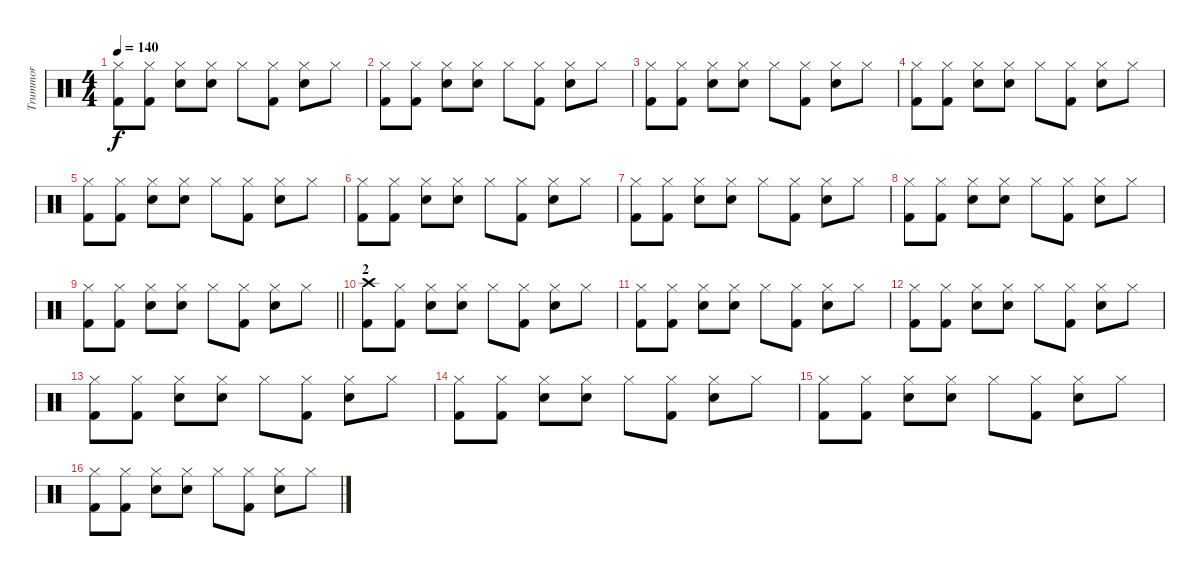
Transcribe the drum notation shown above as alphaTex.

\track ("Trummor" "Trummor") {instrument percussion}
\staff {score}
\articulation defaults
\ts (4 4)
\tempo 140
\clef neutral
\ks c
("Hi-Hat (closed)" "Kick (hit) 2").8{dy f} ("Hi-Hat (closed)" "Kick (hit) 2").8 ("Hi-Hat (closed)" "Electric Snare (hit)").8 ("Hi-Hat (closed)" "Electric Snare (hit)").8 "Hi-Hat (closed)".8 ("Hi-Hat (closed)" "Kick (hit) 2").8 ("Hi-Hat (closed)" "Electric Snare (hit)").8 "Hi-Hat (closed)".8 |
("Hi-Hat (closed)" "Kick (hit) 2").8 ("Hi-Hat (closed)" "Kick (hit) 2").8 ("Hi-Hat (closed)" "Electric Snare (hit)").8 ("Hi-Hat (closed)" "Electric Snare (hit)").8 "Hi-Hat (closed)".8 ("Hi-Hat (closed)" "Kick (hit) 2").8 ("Hi-Hat (closed)" "Electric Snare (hit)").8 "Hi-Hat (closed)".8 |
("Hi-Hat (closed)" "Kick (hit) 2").8 ("Hi-Hat (closed)" "Kick (hit) 2").8 ("Hi-Hat (closed)" "Electric Snare (hit)").8 ("Hi-Hat (closed)" "Electric Snare (hit)").8 "Hi-Hat (closed)".8 ("Hi-Hat (closed)" "Kick (hit) 2").8 ("Hi-Hat (closed)" "Electric Snare (hit)").8 "Hi-Hat (closed)".8 |
("Hi-Hat (closed)" "Kick (hit) 2").8 ("Hi-Hat (closed)" "Kick (hit) 2").8 ("Hi-Hat (closed)" "Electric Snare (hit)").8 ("Hi-Hat (closed)" "Electric Snare (hit)").8 "Hi-Hat (closed)".8 ("Hi-Hat (closed)" "Kick (hit) 2").8 ("Hi-Hat (closed)" "Electric Snare (hit)").8 "Hi-Hat (closed)".8 |
("Hi-Hat (closed)" "Kick (hit) 2").8 ("Hi-Hat (closed)" "Kick (hit) 2").8 ("Hi-Hat (closed)" "Electric Snare (hit)").8 ("Hi-Hat (closed)" "Electric Snare (hit)").8 "Hi-Hat (closed)".8 ("Hi-Hat (closed)" "Kick (hit) 2").8 ("Hi-Hat (closed)" "Electric Snare (hit)").8 "Hi-Hat (closed)".8 |
("Hi-Hat (closed)" "Kick (hit) 2").8 ("Hi-Hat (closed)" "Kick (hit) 2").8 ("Hi-Hat (closed)" "Electric Snare (hit)").8 ("Hi-Hat (closed)" "Electric Snare (hit)").8 "Hi-Hat (closed)".8 ("Hi-Hat (closed)" "Kick (hit) 2").8 ("Hi-Hat (closed)" "Electric Snare (hit)").8 "Hi-Hat (closed)".8 |
("Hi-Hat (closed)" "Kick (hit) 2").8 ("Hi-Hat (closed)" "Kick (hit) 2").8 ("Hi-Hat (closed)" "Electric Snare (hit)").8 ("Hi-Hat (closed)" "Electric Snare (hit)").8 "Hi-Hat (closed)".8 ("Hi-Hat (closed)" "Kick (hit) 2").8 ("Hi-Hat (closed)" "Electric Snare (hit)").8 "Hi-Hat (closed)".8 |
("Hi-Hat (closed)" "Kick (hit) 2").8 ("Hi-Hat (closed)" "Kick (hit) 2").8 ("Hi-Hat (closed)" "Electric Snare (hit)").8 ("Hi-Hat (closed)" "Electric Snare (hit)").8 "Hi-Hat (closed)".8 ("Hi-Hat (closed)" "Kick (hit) 2").8 ("Hi-Hat (closed)" "Electric Snare (hit)").8 "Hi-Hat (closed)".8 |
\barLineRight lightlight
("Hi-Hat (closed)" "Kick (hit) 2").8 ("Hi-Hat (closed)" "Kick (hit) 2").8 ("Hi-Hat (closed)" "Electric Snare (hit)").8 ("Hi-Hat (closed)" "Electric Snare (hit)").8 "Hi-Hat (closed)".8 ("Hi-Hat (closed)" "Kick (hit) 2").8 ("Hi-Hat (closed)" "Electric Snare (hit)").8 "Hi-Hat (closed)".8 |
\section ("" "2")
("Crash high (hit)" "Kick (hit) 2").8 ("Hi-Hat (closed)" "Kick (hit) 2").8 ("Hi-Hat (closed)" "Electric Snare (hit)").8 ("Hi-Hat (closed)" "Electric Snare (hit)").8 "Hi-Hat (closed)".8 ("Hi-Hat (closed)" "Kick (hit) 2").8 ("Hi-Hat (closed)" "Electric Snare (hit)").8 "Hi-Hat (closed)".8 |
("Hi-Hat (closed)" "Kick (hit) 2").8 ("Hi-Hat (closed)" "Kick (hit) 2").8 ("Hi-Hat (closed)" "Electric Snare (hit)").8 ("Hi-Hat (closed)" "Electric Snare (hit)").8 "Hi-Hat (closed)".8 ("Hi-Hat (closed)" "Kick (hit) 2").8 ("Hi-Hat (closed)" "Electric Snare (hit)").8 "Hi-Hat (closed)".8 |
("Hi-Hat (closed)" "Kick (hit) 2").8 ("Hi-Hat (closed)" "Kick (hit) 2").8 ("Hi-Hat (closed)" "Electric Snare (hit)").8 ("Hi-Hat (closed)" "Electric Snare (hit)").8 "Hi-Hat (closed)".8 ("Hi-Hat (closed)" "Kick (hit) 2").8 ("Hi-Hat (closed)" "Electric Snare (hit)").8 "Hi-Hat (closed)".8 |
("Hi-Hat (closed)" "Kick (hit) 2").8 ("Hi-Hat (closed)" "Kick (hit) 2").8 ("Hi-Hat (closed)" "Electric Snare (hit)").8 ("Hi-Hat (closed)" "Electric Snare (hit)").8 "Hi-Hat (closed)".8 ("Hi-Hat (closed)" "Kick (hit) 2").8 ("Hi-Hat (closed)" "Electric Snare (hit)").8 "Hi-Hat (closed)".8 |
("Hi-Hat (closed)" "Kick (hit) 2").8 ("Hi-Hat (closed)" "Kick (hit) 2").8 ("Hi-Hat (closed)" "Electric Snare (hit)").8 ("Hi-Hat (closed)" "Electric Snare (hit)").8 "Hi-Hat (closed)".8 ("Hi-Hat (closed)" "Kick (hit) 2").8 ("Hi-Hat (closed)" "Electric Snare (hit)").8 "Hi-Hat (closed)".8 |
("Hi-Hat (closed)" "Kick (hit) 2").8 ("Hi-Hat (closed)" "Kick (hit) 2").8 ("Hi-Hat (closed)" "Electric Snare (hit)").8 ("Hi-Hat (closed)" "Electric Snare (hit)").8 "Hi-Hat (closed)".8 ("Hi-Hat (closed)" "Kick (hit) 2").8 ("Hi-Hat (closed)" "Electric Snare (hit)").8 "Hi-Hat (closed)".8 |
("Hi-Hat (closed)" "Kick (hit) 2").8 ("Hi-Hat (closed)" "Kick (hit) 2").8 ("Hi-Hat (closed)" "Electric Snare (hit)").8 ("Hi-Hat (closed)" "Electric Snare (hit)").8 "Hi-Hat (closed)".8 ("Hi-Hat (closed)" "Kick (hit) 2").8 ("Hi-Hat (closed)" "Electric Snare (hit)").8 "Hi-Hat (closed)".8
